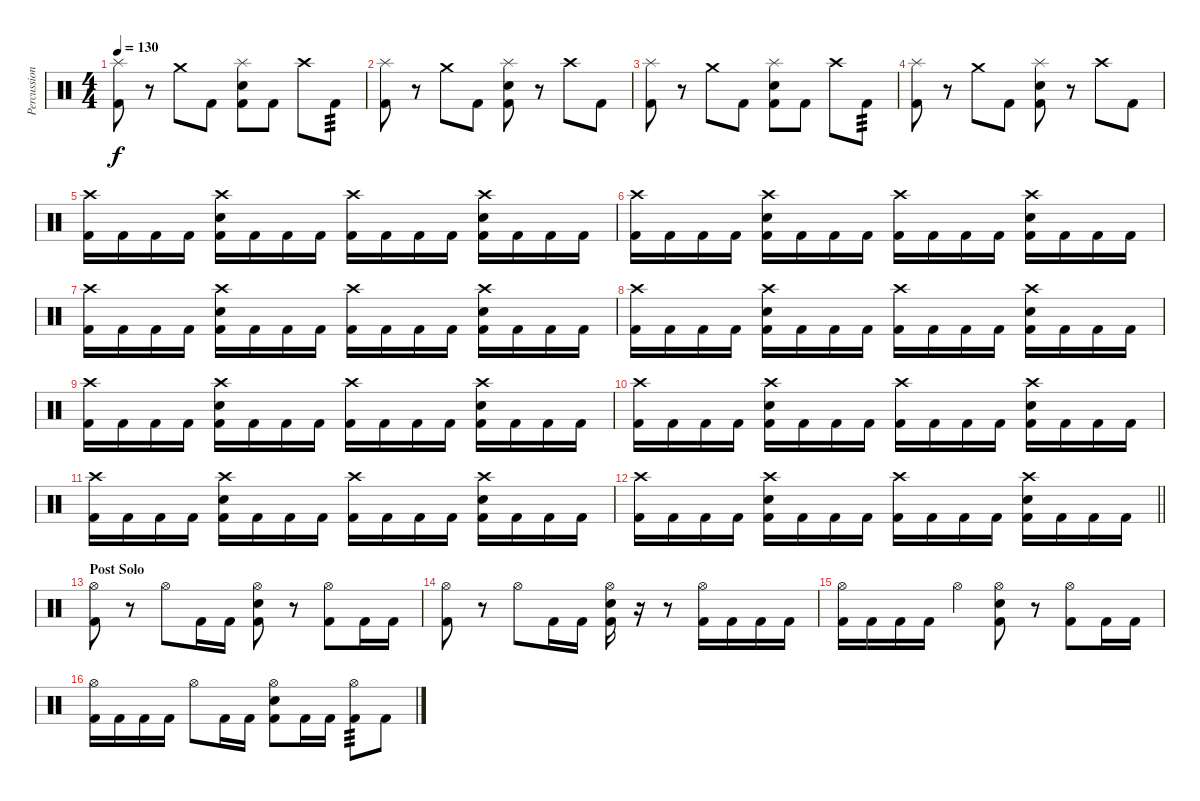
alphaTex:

\track ("Percussion" "Percussion") {instrument percussion}
\staff {score}
\articulation defaults
\ts (4 4)
\tempo 130
\clef neutral
\ks c
("Splash (hit)" "Kick (hit) 2").8{dy f} r.8 "Crash medium (hit)".8 "Kick (hit) 2".8 ("Splash (hit)" "Electric Snare (hit)" "Kick (hit) 2").8 "Kick (hit) 2".8 "Crash high (hit)".8 "Kick (hit) 2".8{tp 3} |
("Splash (hit)" "Kick (hit) 2").8 r.8 "Crash medium (hit)".8 "Kick (hit) 2".8 ("Splash (hit)" "Electric Snare (hit)" "Kick (hit) 2").8 r.8 "Crash high (hit)".8 "Kick (hit) 2".8 |
("Splash (hit)" "Kick (hit) 2").8 r.8 "Crash medium (hit)".8 "Kick (hit) 2".8 ("Splash (hit)" "Electric Snare (hit)" "Kick (hit) 2").8 "Kick (hit) 2".8 "Crash high (hit)".8 "Kick (hit) 2".8{tp 3} |
("Splash (hit)" "Kick (hit) 2").8 r.8 "Crash medium (hit)".8 "Kick (hit) 2".8 ("Splash (hit)" "Electric Snare (hit)" "Kick (hit) 2").8 r.8 "Crash high (hit)".8 "Kick (hit) 2".8 |
("Crash high (hit)" "Kick (hit) 2").16 "Kick (hit) 2".16 "Kick (hit) 2".16 "Kick (hit) 2".16 ("Crash high (hit)" "Electric Snare (hit)" "Kick (hit) 2").16 "Kick (hit) 2".16 "Kick (hit) 2".16 "Kick (hit) 2".16 ("Crash high (hit)" "Kick (hit) 2").16 "Kick (hit) 2".16 "Kick (hit) 2".16 "Kick (hit) 2".16 ("Crash high (hit)" "Electric Snare (hit)" "Kick (hit) 2").16 "Kick (hit) 2".16 "Kick (hit) 2".16 "Kick (hit) 2".16 |
("Crash high (hit)" "Kick (hit) 2").16 "Kick (hit) 2".16 "Kick (hit) 2".16 "Kick (hit) 2".16 ("Crash high (hit)" "Electric Snare (hit)" "Kick (hit) 2").16 "Kick (hit) 2".16 "Kick (hit) 2".16 "Kick (hit) 2".16 ("Crash high (hit)" "Kick (hit) 2").16 "Kick (hit) 2".16 "Kick (hit) 2".16 "Kick (hit) 2".16 ("Crash high (hit)" "Electric Snare (hit)" "Kick (hit) 2").16 "Kick (hit) 2".16 "Kick (hit) 2".16 "Kick (hit) 2".16 |
("Crash high (hit)" "Kick (hit) 2").16 "Kick (hit) 2".16 "Kick (hit) 2".16 "Kick (hit) 2".16 ("Crash high (hit)" "Electric Snare (hit)" "Kick (hit) 2").16 "Kick (hit) 2".16 "Kick (hit) 2".16 "Kick (hit) 2".16 ("Crash high (hit)" "Kick (hit) 2").16 "Kick (hit) 2".16 "Kick (hit) 2".16 "Kick (hit) 2".16 ("Crash high (hit)" "Electric Snare (hit)" "Kick (hit) 2").16 "Kick (hit) 2".16 "Kick (hit) 2".16 "Kick (hit) 2".16 |
("Crash high (hit)" "Kick (hit) 2").16 "Kick (hit) 2".16 "Kick (hit) 2".16 "Kick (hit) 2".16 ("Crash high (hit)" "Electric Snare (hit)" "Kick (hit) 2").16 "Kick (hit) 2".16 "Kick (hit) 2".16 "Kick (hit) 2".16 ("Crash high (hit)" "Kick (hit) 2").16 "Kick (hit) 2".16 "Kick (hit) 2".16 "Kick (hit) 2".16 ("Crash high (hit)" "Electric Snare (hit)" "Kick (hit) 2").16 "Kick (hit) 2".16 "Kick (hit) 2".16 "Kick (hit) 2".16 |
("Crash high (hit)" "Kick (hit) 2").16 "Kick (hit) 2".16 "Kick (hit) 2".16 "Kick (hit) 2".16 ("Crash high (hit)" "Electric Snare (hit)" "Kick (hit) 2").16 "Kick (hit) 2".16 "Kick (hit) 2".16 "Kick (hit) 2".16 ("Crash high (hit)" "Kick (hit) 2").16 "Kick (hit) 2".16 "Kick (hit) 2".16 "Kick (hit) 2".16 ("Crash high (hit)" "Electric Snare (hit)" "Kick (hit) 2").16 "Kick (hit) 2".16 "Kick (hit) 2".16 "Kick (hit) 2".16 |
("Crash high (hit)" "Kick (hit) 2").16 "Kick (hit) 2".16 "Kick (hit) 2".16 "Kick (hit) 2".16 ("Crash high (hit)" "Electric Snare (hit)" "Kick (hit) 2").16 "Kick (hit) 2".16 "Kick (hit) 2".16 "Kick (hit) 2".16 ("Crash high (hit)" "Kick (hit) 2").16 "Kick (hit) 2".16 "Kick (hit) 2".16 "Kick (hit) 2".16 ("Crash high (hit)" "Electric Snare (hit)" "Kick (hit) 2").16 "Kick (hit) 2".16 "Kick (hit) 2".16 "Kick (hit) 2".16 |
("Crash high (hit)" "Kick (hit) 2").16 "Kick (hit) 2".16 "Kick (hit) 2".16 "Kick (hit) 2".16 ("Crash high (hit)" "Electric Snare (hit)" "Kick (hit) 2").16 "Kick (hit) 2".16 "Kick (hit) 2".16 "Kick (hit) 2".16 ("Crash high (hit)" "Kick (hit) 2").16 "Kick (hit) 2".16 "Kick (hit) 2".16 "Kick (hit) 2".16 ("Crash high (hit)" "Electric Snare (hit)" "Kick (hit) 2").16 "Kick (hit) 2".16 "Kick (hit) 2".16 "Kick (hit) 2".16 |
\barLineRight lightlight
("Crash high (hit)" "Kick (hit) 2").16 "Kick (hit) 2".16 "Kick (hit) 2".16 "Kick (hit) 2".16 ("Crash high (hit)" "Electric Snare (hit)" "Kick (hit) 2").16 "Kick (hit) 2".16 "Kick (hit) 2".16 "Kick (hit) 2".16 ("Crash high (hit)" "Kick (hit) 2").16 "Kick (hit) 2".16 "Kick (hit) 2".16 "Kick (hit) 2".16 ("Crash high (hit)" "Electric Snare (hit)" "Kick (hit) 2").16 "Kick (hit) 2".16 "Kick (hit) 2".16 "Kick (hit) 2".16 |
\section ("" "Post Solo")
("Hi-Hat (open)" "Kick (hit) 2").8 r.8 "Hi-Hat (open)".8 "Kick (hit) 2".16 "Kick (hit) 2".16 ("Hi-Hat (open)" "Electric Snare (hit)" "Kick (hit) 2").8 r.8 ("Hi-Hat (open)" "Kick (hit) 2").8 "Kick (hit) 2".16 "Kick (hit) 2".16 |
("Hi-Hat (open)" "Kick (hit) 2").8 r.8 "Hi-Hat (open)".8 "Kick (hit) 2".16 "Kick (hit) 2".16 ("Hi-Hat (open)" "Electric Snare (hit)" "Kick (hit) 2").16 r.16 r.8 ("Hi-Hat (open)" "Kick (hit) 2").16 "Kick (hit) 2".16 "Kick (hit) 2".16 "Kick (hit) 2".16 |
("Hi-Hat (open)" "Kick (hit) 2").16 "Kick (hit) 2".16 "Kick (hit) 2".16 "Kick (hit) 2".16 "Hi-Hat (open)".4 ("Hi-Hat (open)" "Electric Snare (hit)" "Kick (hit) 2").8 r.8 ("Hi-Hat (open)" "Kick (hit) 2").8 "Kick (hit) 2".16 "Kick (hit) 2".16 |
("Hi-Hat (open)" "Kick (hit) 2").16 "Kick (hit) 2".16 "Kick (hit) 2".16 "Kick (hit) 2".16 "Hi-Hat (open)".8 "Kick (hit) 2".16 "Kick (hit) 2".16 ("Hi-Hat (open)" "Electric Snare (hit)" "Kick (hit) 2").8 "Kick (hit) 2".16 "Kick (hit) 2".16 ("Hi-Hat (open)" "Kick (hit) 2").8{tp 3} "Kick (hit) 2".8
